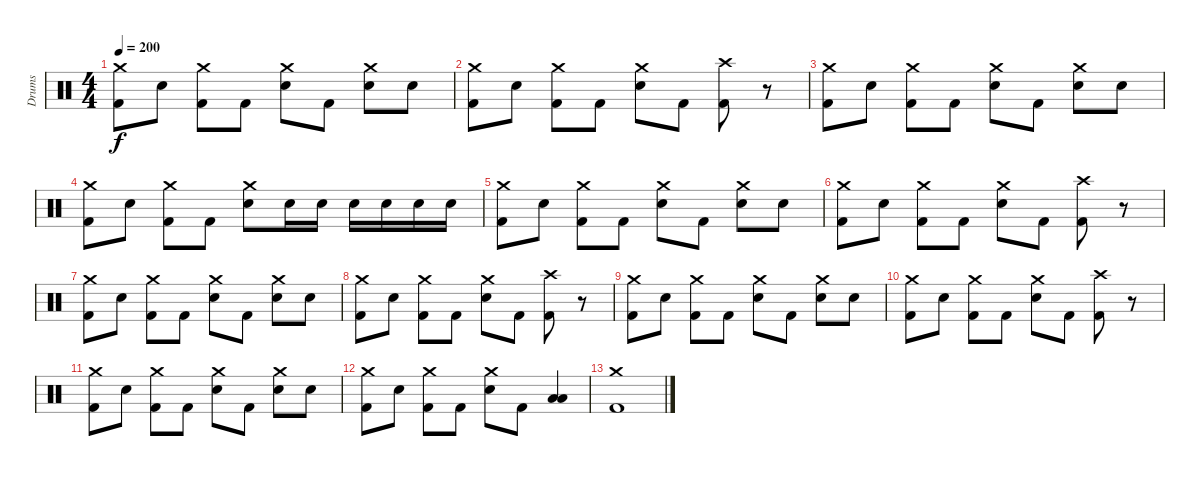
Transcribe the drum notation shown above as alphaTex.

\track ("Drums" "Drums") {instrument percussion}
\staff {score}
\articulation defaults
\ts (4 4)
\tempo 200
\clef neutral
\ks c
("Crash medium (hit)" "Kick (hit) 2").8{dy f} "Electric Snare (hit)".8 ("Crash medium (hit)" "Kick (hit) 2").8 "Kick (hit) 2".8 ("Crash medium (hit)" "Electric Snare (hit)").8 "Kick (hit) 2".8 ("Crash medium (hit)" "Electric Snare (hit)").8 "Electric Snare (hit)".8 |
("Crash medium (hit)" "Kick (hit) 2").8 "Electric Snare (hit)".8 ("Crash medium (hit)" "Kick (hit) 2").8 "Kick (hit) 2".8 ("Crash medium (hit)" "Electric Snare (hit)").8 "Kick (hit) 2".8 ("Crash high (hit)" "Kick (hit) 2").8 r.8 |
("Crash medium (hit)" "Kick (hit) 2").8 "Electric Snare (hit)".8 ("Crash medium (hit)" "Kick (hit) 2").8 "Kick (hit) 2".8 ("Crash medium (hit)" "Electric Snare (hit)").8 "Kick (hit) 2".8 ("Crash medium (hit)" "Electric Snare (hit)").8 "Electric Snare (hit)".8 |
("Crash medium (hit)" "Kick (hit) 2").8 "Electric Snare (hit)".8 ("Crash medium (hit)" "Kick (hit) 2").8 "Kick (hit) 2".8 ("Crash medium (hit)" "Electric Snare (hit)").8 "Electric Snare (hit)".16 "Electric Snare (hit)".16 "Electric Snare (hit)".16 "Electric Snare (hit)".16 "Electric Snare (hit)".16 "Electric Snare (hit)".16 |
("Crash medium (hit)" "Kick (hit) 2").8 "Electric Snare (hit)".8 ("Crash medium (hit)" "Kick (hit) 2").8 "Kick (hit) 2".8 ("Crash medium (hit)" "Electric Snare (hit)").8 "Kick (hit) 2".8 ("Crash medium (hit)" "Electric Snare (hit)").8 "Electric Snare (hit)".8 |
("Crash medium (hit)" "Kick (hit) 2").8 "Electric Snare (hit)".8 ("Crash medium (hit)" "Kick (hit) 2").8 "Kick (hit) 2".8 ("Crash medium (hit)" "Electric Snare (hit)").8 "Kick (hit) 2".8 ("Crash high (hit)" "Kick (hit) 2").8 r.8 |
("Crash medium (hit)" "Kick (hit) 2").8 "Electric Snare (hit)".8 ("Crash medium (hit)" "Kick (hit) 2").8 "Kick (hit) 2".8 ("Crash medium (hit)" "Electric Snare (hit)").8 "Kick (hit) 2".8 ("Crash medium (hit)" "Electric Snare (hit)").8 "Electric Snare (hit)".8 |
("Crash medium (hit)" "Kick (hit) 2").8 "Electric Snare (hit)".8 ("Crash medium (hit)" "Kick (hit) 2").8 "Kick (hit) 2".8 ("Crash medium (hit)" "Electric Snare (hit)").8 "Kick (hit) 2".8 ("Crash high (hit)" "Kick (hit) 2").8 r.8 |
("Crash medium (hit)" "Kick (hit) 2").8 "Electric Snare (hit)".8 ("Crash medium (hit)" "Kick (hit) 2").8 "Kick (hit) 2".8 ("Crash medium (hit)" "Electric Snare (hit)").8 "Kick (hit) 2".8 ("Crash medium (hit)" "Electric Snare (hit)").8 "Electric Snare (hit)".8 |
("Crash medium (hit)" "Kick (hit) 2").8 "Electric Snare (hit)".8 ("Crash medium (hit)" "Kick (hit) 2").8 "Kick (hit) 2".8 ("Crash medium (hit)" "Electric Snare (hit)").8 "Kick (hit) 2".8 ("Crash high (hit)" "Kick (hit) 2").8 r.8 |
("Crash medium (hit)" "Kick (hit) 2").8 "Electric Snare (hit)".8 ("Crash medium (hit)" "Kick (hit) 2").8 "Kick (hit) 2".8 ("Crash medium (hit)" "Electric Snare (hit)").8 "Kick (hit) 2".8 ("Crash medium (hit)" "Electric Snare (hit)").8 "Electric Snare (hit)".8 |
("Crash medium (hit)" "Kick (hit) 2").8 "Electric Snare (hit)".8 ("Crash medium (hit)" "Kick (hit) 2").8 "Kick (hit) 2".8 ("Crash medium (hit)" "Electric Snare (hit)").8 "Kick (hit) 2".8 ("Low Floor Tom (hit)" "Low Tom (hit)").4 |
("Crash medium (hit)" "Kick (hit) 2").1
